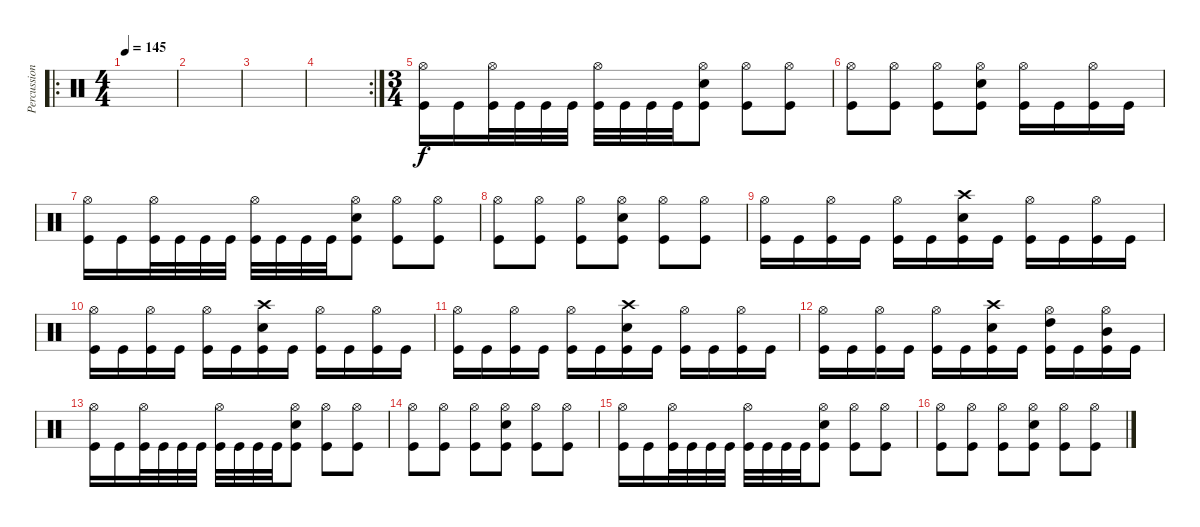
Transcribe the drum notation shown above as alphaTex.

\track ("Percussion" "Percussion") {instrument percussion}
\staff {score}
\articulation defaults
\ro
\ts (4 4)
\tempo 145
\clef neutral
\ks c
|
|
|
\rc 2
|
\ts (3 4)
("Hi-Hat (open)" "Kick (hit)").16 "Kick (hit)".16 ("Hi-Hat (open)" "Kick (hit)").32 "Kick (hit)".32 "Kick (hit)".32 "Kick (hit)".32 ("Hi-Hat (open)" "Kick (hit)").32 "Kick (hit)".32 "Kick (hit)".32 "Kick (hit)".32 ("Hi-Hat (open)" "Snare (hit) 2" "Kick (hit)").8 ("Hi-Hat (open)" "Kick (hit)").8 ("Hi-Hat (open)" "Kick (hit)").8 |
("Hi-Hat (open)" "Kick (hit)").8 ("Hi-Hat (open)" "Kick (hit)").8 ("Hi-Hat (open)" "Kick (hit)").8 ("Hi-Hat (open)" "Snare (hit) 2" "Kick (hit)").8 ("Hi-Hat (open)" "Kick (hit)").16 "Kick (hit)".16 ("Hi-Hat (open)" "Kick (hit)").16 "Kick (hit)".16 |
("Hi-Hat (open)" "Kick (hit)").16 "Kick (hit)".16 ("Hi-Hat (open)" "Kick (hit)").32 "Kick (hit)".32 "Kick (hit)".32 "Kick (hit)".32 ("Hi-Hat (open)" "Kick (hit)").32 "Kick (hit)".32 "Kick (hit)".32 "Kick (hit)".32 ("Hi-Hat (open)" "Snare (hit) 2" "Kick (hit)").8 ("Hi-Hat (open)" "Kick (hit)").8 ("Hi-Hat (open)" "Kick (hit)").8 |
("Hi-Hat (open)" "Kick (hit)").8 ("Hi-Hat (open)" "Kick (hit)").8 ("Hi-Hat (open)" "Kick (hit)").8 ("Hi-Hat (open)" "Snare (hit) 2" "Kick (hit)").8 ("Hi-Hat (open)" "Kick (hit)").8 ("Hi-Hat (open)" "Kick (hit)").8 |
("Hi-Hat (open)" "Kick (hit)").16 "Kick (hit)".16 ("Hi-Hat (open)" "Kick (hit)").16 "Kick (hit)".16 ("Hi-Hat (open)" "Kick (hit)").16 "Kick (hit)".16 ("Crash high (hit)" "Snare (hit) 2" "Kick (hit)").16 "Kick (hit)".16 ("Hi-Hat (open)" "Kick (hit)").16 "Kick (hit)".16 ("Hi-Hat (open)" "Kick (hit)").16 "Kick (hit)".16 |
("Hi-Hat (open)" "Kick (hit)").16 "Kick (hit)".16 ("Hi-Hat (open)" "Kick (hit)").16 "Kick (hit)".16 ("Hi-Hat (open)" "Kick (hit)").16 "Kick (hit)".16 ("Crash high (hit)" "Snare (hit) 2" "Kick (hit)").16 "Kick (hit)".16 ("Hi-Hat (open)" "Kick (hit)").16 "Kick (hit)".16 ("Hi-Hat (open)" "Kick (hit)").16 "Kick (hit)".16 |
("Hi-Hat (open)" "Kick (hit)").16 "Kick (hit)".16 ("Hi-Hat (open)" "Kick (hit)").16 "Kick (hit)".16 ("Hi-Hat (open)" "Kick (hit)").16 "Kick (hit)".16 ("Crash high (hit)" "Snare (hit) 2" "Kick (hit)").16 "Kick (hit)".16 ("Hi-Hat (open)" "Kick (hit)").16 "Kick (hit)".16 ("Hi-Hat (open)" "Kick (hit)").16 "Kick (hit)".16 |
("Hi-Hat (open)" "Kick (hit)").16 "Kick (hit)".16 ("Hi-Hat (open)" "Kick (hit)").16 "Kick (hit)".16 ("Hi-Hat (open)" "Kick (hit)").16 "Kick (hit)".16 ("Crash high (hit)" "Snare (hit) 2" "Kick (hit)").16 "Kick (hit)".16 ("Hi-Hat (open)" "High Tom (hit)" "Kick (hit)").16 "Kick (hit)".16 ("Hi-Hat (open)" "Mid Tom (hit)" "Kick (hit)").16 "Kick (hit)".16 |
("Hi-Hat (open)" "Kick (hit)").16 "Kick (hit)".16 ("Hi-Hat (open)" "Kick (hit)").32 "Kick (hit)".32 "Kick (hit)".32 "Kick (hit)".32 ("Hi-Hat (open)" "Kick (hit)").32 "Kick (hit)".32 "Kick (hit)".32 "Kick (hit)".32 ("Hi-Hat (open)" "Snare (hit) 2" "Kick (hit)").8 ("Hi-Hat (open)" "Kick (hit)").8 ("Hi-Hat (open)" "Kick (hit)").8 |
("Hi-Hat (open)" "Kick (hit)").8 ("Hi-Hat (open)" "Kick (hit)").8 ("Hi-Hat (open)" "Kick (hit)").8 ("Hi-Hat (open)" "Snare (hit) 2" "Kick (hit)").8 ("Hi-Hat (open)" "Kick (hit)").8 ("Hi-Hat (open)" "Kick (hit)").8 |
("Hi-Hat (open)" "Kick (hit)").16 "Kick (hit)".16 ("Hi-Hat (open)" "Kick (hit)").32 "Kick (hit)".32 "Kick (hit)".32 "Kick (hit)".32 ("Hi-Hat (open)" "Kick (hit)").32 "Kick (hit)".32 "Kick (hit)".32 "Kick (hit)".32 ("Hi-Hat (open)" "Snare (hit) 2" "Kick (hit)").8 ("Hi-Hat (open)" "Kick (hit)").8 ("Hi-Hat (open)" "Kick (hit)").8 |
("Hi-Hat (open)" "Kick (hit)").8 ("Hi-Hat (open)" "Kick (hit)").8 ("Hi-Hat (open)" "Kick (hit)").8 ("Hi-Hat (open)" "Snare (hit) 2" "Kick (hit)").8 ("Hi-Hat (open)" "Kick (hit)").8 ("Hi-Hat (open)" "Kick (hit)").8
